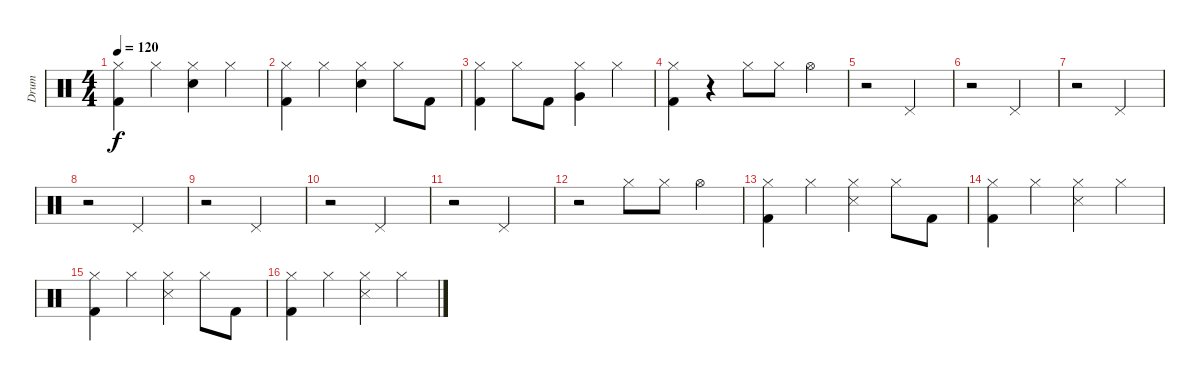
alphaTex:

\track ("Drum" "Drum") {instrument percussion}
\staff {score}
\articulation defaults
\ts (4 4)
\tempo 120
\clef neutral
\ks c
("Hi-Hat (closed)" "Kick (hit) 2").4{dy f} "Hi-Hat (closed)".4 ("Hi-Hat (closed)" "Electric Snare (hit)").4 "Hi-Hat (closed)".4 |
("Hi-Hat (closed)" "Kick (hit) 2").4 "Hi-Hat (closed)".4 ("Hi-Hat (closed)" "Electric Snare (hit)").4 "Hi-Hat (closed)".8 "Kick (hit) 2".8 |
("Hi-Hat (closed)" "Kick (hit) 2").4 "Hi-Hat (closed)".8 "Kick (hit) 2".8 ("Hi-Hat (closed)" "Very Low Tom (hit)").4 "Hi-Hat (closed)".4 |
("Hi-Hat (closed)" "Kick (hit) 2").4 r.4 "Hi-Hat (closed)".8 "Hi-Hat (closed)".8 "Hi-Hat (open)".4 |
r.2 "Pedal Hi-Hat (hit)".2 |
r.2 "Pedal Hi-Hat (hit)".2 |
r.2 "Pedal Hi-Hat (hit)".2 |
r.2 "Pedal Hi-Hat (hit)".2 |
r.2 "Pedal Hi-Hat (hit)".2 |
r.2 "Pedal Hi-Hat (hit)".2 |
r.2 "Pedal Hi-Hat (hit)".2 |
r.2 "Hi-Hat (closed)".8 "Hi-Hat (closed)".8 "Hi-Hat (open)".4 |
("Hi-Hat (closed)" "Kick (hit) 2").4 "Hi-Hat (closed)".4 ("Hi-Hat (closed)" "Snare (side stick) 3").4 "Hi-Hat (closed)".8 "Kick (hit) 2".8 |
("Hi-Hat (closed)" "Kick (hit) 2").4 "Hi-Hat (closed)".4 ("Hi-Hat (closed)" "Snare (side stick) 3").4 "Hi-Hat (closed)".4 |
("Hi-Hat (closed)" "Kick (hit) 2").4 "Hi-Hat (closed)".4 ("Hi-Hat (closed)" "Snare (side stick) 3").4 "Hi-Hat (closed)".8 "Kick (hit) 2".8 |
("Hi-Hat (closed)" "Kick (hit) 2").4 "Hi-Hat (closed)".4 ("Hi-Hat (closed)" "Snare (side stick) 3").4 "Hi-Hat (closed)".4
